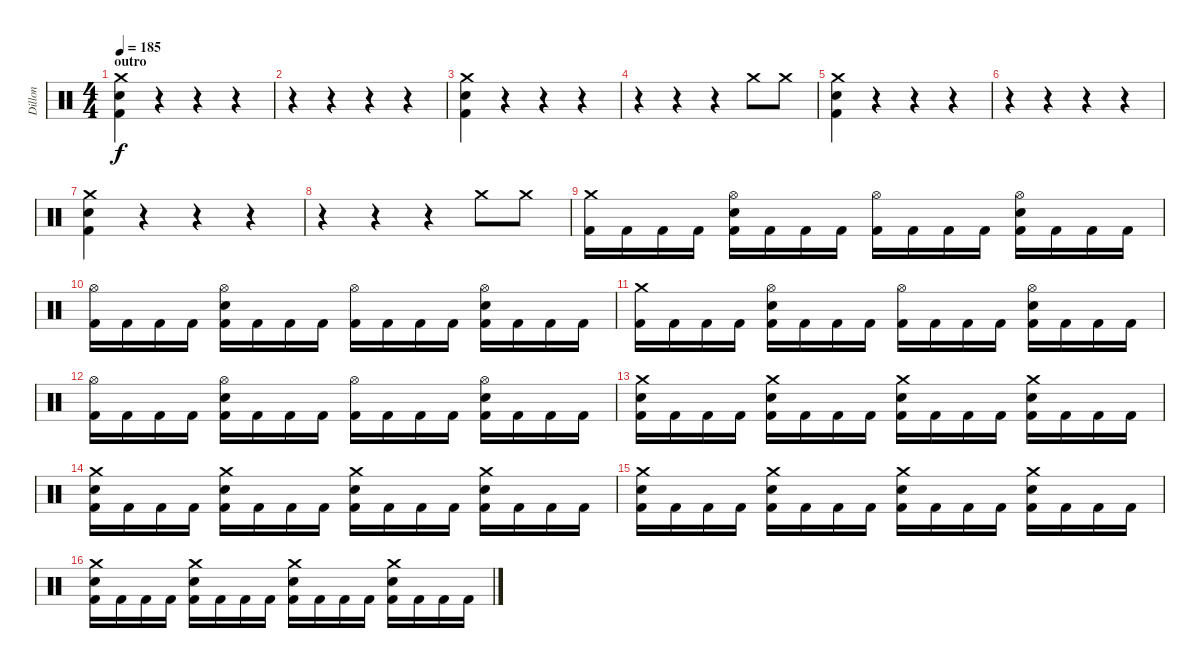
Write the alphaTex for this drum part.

\track ("Dillon" "Dillon") {instrument percussion}
\staff {score}
\articulation defaults
\ts (4 4)
\section ("" "outro")
\tempo 185
\clef neutral
\ks c
("Crash medium (hit)" "Electric Snare (hit)" "Kick (hit) 2").4{dy f} r.4 r.4 r.4 |
r.4 r.4 r.4 r.4 |
("Crash medium (hit)" "Electric Snare (hit)" "Kick (hit) 2").4 r.4 r.4 r.4 |
r.4 r.4 r.4 "Crash medium (hit)".8 "Crash medium (hit)".8 |
("Crash medium (hit)" "Electric Snare (hit)" "Kick (hit) 2").4 r.4 r.4 r.4 |
r.4 r.4 r.4 r.4 |
("Crash medium (hit)" "Electric Snare (hit)" "Kick (hit) 2").4 r.4 r.4 r.4 |
r.4 r.4 r.4 "Crash medium (hit)".8 "Crash medium (hit)".8 |
("Crash medium (hit)" "Kick (hit) 2").16 "Kick (hit) 2".16 "Kick (hit) 2".16 "Kick (hit) 2".16 ("Hi-Hat (open)" "Electric Snare (hit)" "Kick (hit) 2").16 "Kick (hit) 2".16 "Kick (hit) 2".16 "Kick (hit) 2".16 ("Hi-Hat (open)" "Kick (hit) 2").16 "Kick (hit) 2".16 "Kick (hit) 2".16 "Kick (hit) 2".16 ("Hi-Hat (open)" "Electric Snare (hit)" "Kick (hit) 2").16 "Kick (hit) 2".16 "Kick (hit) 2".16 "Kick (hit) 2".16 |
("Hi-Hat (open)" "Kick (hit) 2").16 "Kick (hit) 2".16 "Kick (hit) 2".16 "Kick (hit) 2".16 ("Hi-Hat (open)" "Electric Snare (hit)" "Kick (hit) 2").16 "Kick (hit) 2".16 "Kick (hit) 2".16 "Kick (hit) 2".16 ("Hi-Hat (open)" "Kick (hit) 2").16 "Kick (hit) 2".16 "Kick (hit) 2".16 "Kick (hit) 2".16 ("Hi-Hat (open)" "Electric Snare (hit)" "Kick (hit) 2").16 "Kick (hit) 2".16 "Kick (hit) 2".16 "Kick (hit) 2".16 |
("Crash medium (hit)" "Kick (hit) 2").16 "Kick (hit) 2".16 "Kick (hit) 2".16 "Kick (hit) 2".16 ("Hi-Hat (open)" "Electric Snare (hit)" "Kick (hit) 2").16 "Kick (hit) 2".16 "Kick (hit) 2".16 "Kick (hit) 2".16 ("Hi-Hat (open)" "Kick (hit) 2").16 "Kick (hit) 2".16 "Kick (hit) 2".16 "Kick (hit) 2".16 ("Hi-Hat (open)" "Electric Snare (hit)" "Kick (hit) 2").16 "Kick (hit) 2".16 "Kick (hit) 2".16 "Kick (hit) 2".16 |
("Hi-Hat (open)" "Kick (hit) 2").16 "Kick (hit) 2".16 "Kick (hit) 2".16 "Kick (hit) 2".16 ("Hi-Hat (open)" "Electric Snare (hit)" "Kick (hit) 2").16 "Kick (hit) 2".16 "Kick (hit) 2".16 "Kick (hit) 2".16 ("Hi-Hat (open)" "Kick (hit) 2").16 "Kick (hit) 2".16 "Kick (hit) 2".16 "Kick (hit) 2".16 ("Hi-Hat (open)" "Electric Snare (hit)" "Kick (hit) 2").16 "Kick (hit) 2".16 "Kick (hit) 2".16 "Kick (hit) 2".16 |
("Crash medium (hit)" "Electric Snare (hit)" "Kick (hit) 2").16 "Kick (hit) 2".16 "Kick (hit) 2".16 "Kick (hit) 2".16 ("Crash medium (hit)" "Electric Snare (hit)" "Kick (hit) 2").16 "Kick (hit) 2".16 "Kick (hit) 2".16 "Kick (hit) 2".16 ("Crash medium (hit)" "Electric Snare (hit)" "Kick (hit) 2").16 "Kick (hit) 2".16 "Kick (hit) 2".16 "Kick (hit) 2".16 ("Crash medium (hit)" "Electric Snare (hit)" "Kick (hit) 2").16 "Kick (hit) 2".16 "Kick (hit) 2".16 "Kick (hit) 2".16 |
("Crash medium (hit)" "Electric Snare (hit)" "Kick (hit) 2").16 "Kick (hit) 2".16 "Kick (hit) 2".16 "Kick (hit) 2".16 ("Crash medium (hit)" "Electric Snare (hit)" "Kick (hit) 2").16 "Kick (hit) 2".16 "Kick (hit) 2".16 "Kick (hit) 2".16 ("Crash medium (hit)" "Electric Snare (hit)" "Kick (hit) 2").16 "Kick (hit) 2".16 "Kick (hit) 2".16 "Kick (hit) 2".16 ("Crash medium (hit)" "Electric Snare (hit)" "Kick (hit) 2").16 "Kick (hit) 2".16 "Kick (hit) 2".16 "Kick (hit) 2".16 |
("Crash medium (hit)" "Electric Snare (hit)" "Kick (hit) 2").16 "Kick (hit) 2".16 "Kick (hit) 2".16 "Kick (hit) 2".16 ("Crash medium (hit)" "Electric Snare (hit)" "Kick (hit) 2").16 "Kick (hit) 2".16 "Kick (hit) 2".16 "Kick (hit) 2".16 ("Crash medium (hit)" "Electric Snare (hit)" "Kick (hit) 2").16 "Kick (hit) 2".16 "Kick (hit) 2".16 "Kick (hit) 2".16 ("Crash medium (hit)" "Electric Snare (hit)" "Kick (hit) 2").16 "Kick (hit) 2".16 "Kick (hit) 2".16 "Kick (hit) 2".16 |
("Crash medium (hit)" "Electric Snare (hit)" "Kick (hit) 2").16 "Kick (hit) 2".16 "Kick (hit) 2".16 "Kick (hit) 2".16 ("Crash medium (hit)" "Electric Snare (hit)" "Kick (hit) 2").16 "Kick (hit) 2".16 "Kick (hit) 2".16 "Kick (hit) 2".16 ("Crash medium (hit)" "Electric Snare (hit)" "Kick (hit) 2").16 "Kick (hit) 2".16 "Kick (hit) 2".16 "Kick (hit) 2".16 ("Crash medium (hit)" "Electric Snare (hit)" "Kick (hit) 2").16 "Kick (hit) 2".16 "Kick (hit) 2".16 "Kick (hit) 2".16
